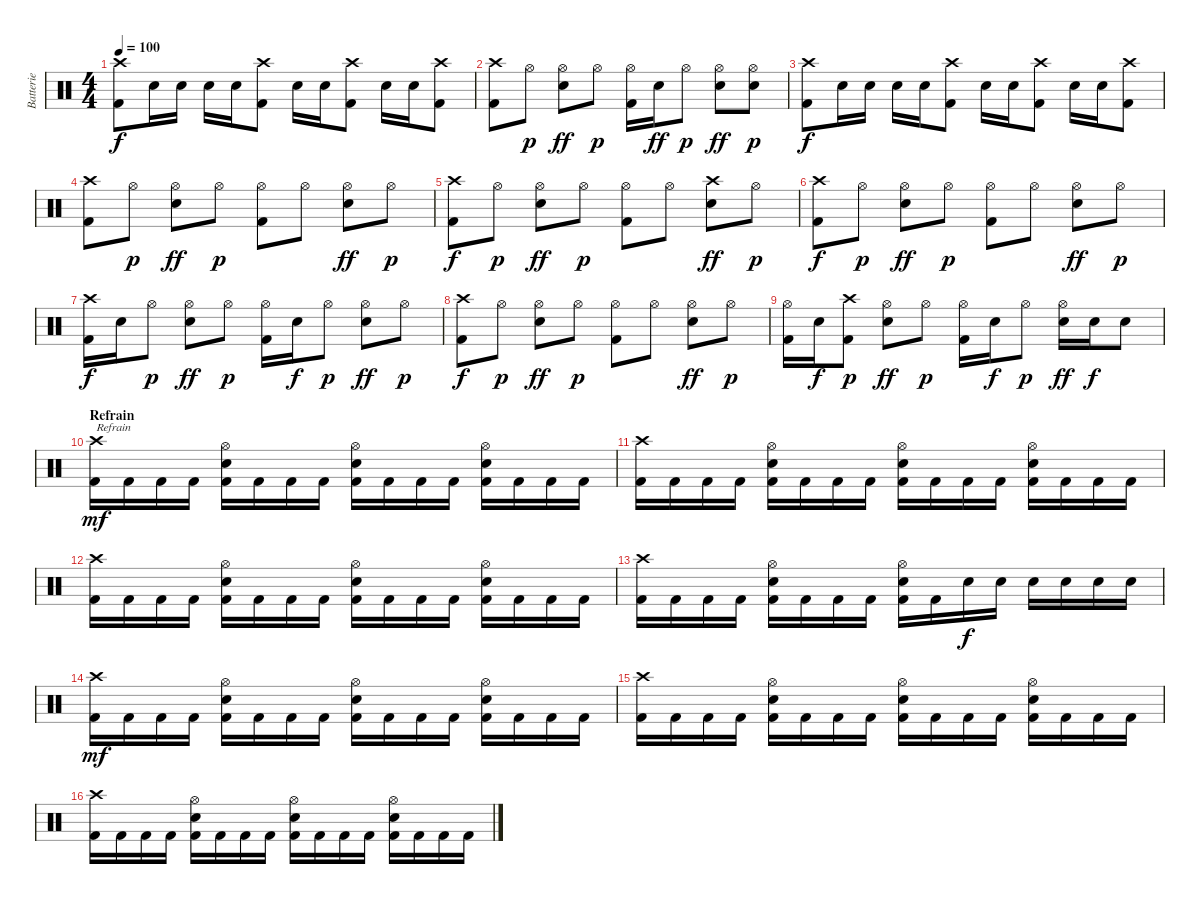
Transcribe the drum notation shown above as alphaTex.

\track ("Batterie" "Batterie") {instrument percussion}
\staff {score}
\articulation defaults
\ts (4 4)
\tempo 100
\clef neutral
\ks c
("Crash high (hit)" "Kick (hit) 2").8{dy f} "Electric Snare (hit)".16 "Electric Snare (hit)".16 "Electric Snare (hit)".16 "Electric Snare (hit)".16 ("Crash high (hit)" "Kick (hit) 2").8 "Electric Snare (hit)".16 "Electric Snare (hit)".16 ("Crash high (hit)" "Kick (hit) 2").8 "Electric Snare (hit)".16 "Electric Snare (hit)".16 ("Crash high (hit)" "Kick (hit) 2").8 |
("Crash high (hit)" "Kick (hit) 2").8 "Hi-Hat (open)".8{dy p} ("Hi-Hat (open)" "Electric Snare (hit)").8{dy ff} "Hi-Hat (open)".8{dy p} ("Hi-Hat (open)" "Kick (hit) 2").16 "Electric Snare (hit)".16{dy ff} "Hi-Hat (open)".8{dy p} ("Hi-Hat (open)" "Electric Snare (hit)").8{dy ff} ("Hi-Hat (open)" "Electric Snare (hit)").8{dy p} |
("Crash high (hit)" "Kick (hit) 2").8{dy f} "Electric Snare (hit)".16 "Electric Snare (hit)".16 "Electric Snare (hit)".16 "Electric Snare (hit)".16 ("Crash high (hit)" "Kick (hit) 2").8 "Electric Snare (hit)".16 "Electric Snare (hit)".16 ("Crash high (hit)" "Kick (hit) 2").8 "Electric Snare (hit)".16 "Electric Snare (hit)".16 ("Crash high (hit)" "Kick (hit) 2").8 |
("Crash high (hit)" "Kick (hit) 2").8 "Hi-Hat (open)".8{dy p} ("Hi-Hat (open)" "Electric Snare (hit)").8{dy ff} "Hi-Hat (open)".8{dy p} ("Hi-Hat (open)" "Kick (hit) 2").8 "Hi-Hat (open)".8 ("Hi-Hat (open)" "Electric Snare (hit)").8{dy ff} "Hi-Hat (open)".8{dy p} |
("Crash high (hit)" "Kick (hit) 2").8{dy f} "Hi-Hat (open)".8{dy p} ("Hi-Hat (open)" "Electric Snare (hit)").8{dy ff} "Hi-Hat (open)".8{dy p} ("Hi-Hat (open)" "Kick (hit) 2").8 "Hi-Hat (open)".8 ("Crash high (hit)" "Electric Snare (hit)").8{dy ff} "Hi-Hat (open)".8{dy p} |
("Crash high (hit)" "Kick (hit) 2").8{dy f} "Hi-Hat (open)".8{dy p} ("Hi-Hat (open)" "Electric Snare (hit)").8{dy ff} "Hi-Hat (open)".8{dy p} ("Hi-Hat (open)" "Kick (hit) 2").8 "Hi-Hat (open)".8 ("Hi-Hat (open)" "Electric Snare (hit)").8{dy ff} "Hi-Hat (open)".8{dy p} |
("Crash high (hit)" "Kick (hit) 2").16{dy f} "Electric Snare (hit)".16 "Hi-Hat (open)".8{dy p} ("Hi-Hat (open)" "Electric Snare (hit)").8{dy ff} "Hi-Hat (open)".8{dy p} ("Hi-Hat (open)" "Kick (hit) 2").16 "Electric Snare (hit)".16{dy f} "Hi-Hat (open)".8{dy p} ("Hi-Hat (open)" "Electric Snare (hit)").8{dy ff} "Hi-Hat (open)".8{dy p} |
("Crash high (hit)" "Kick (hit) 2").8{dy f} "Hi-Hat (open)".8{dy p} ("Hi-Hat (open)" "Electric Snare (hit)").8{dy ff} "Hi-Hat (open)".8{dy p} ("Hi-Hat (open)" "Kick (hit) 2").8 "Hi-Hat (open)".8 ("Hi-Hat (open)" "Electric Snare (hit)").8{dy ff} "Hi-Hat (open)".8{dy p} |
("Hi-Hat (open)" "Kick (hit) 2").16 "Electric Snare (hit)".16{dy f} ("Crash high (hit)" "Kick (hit) 2").8{dy p} ("Hi-Hat (open)" "Electric Snare (hit)").8{dy ff} "Hi-Hat (open)".8{dy p} ("Hi-Hat (open)" "Kick (hit) 2").16 "Electric Snare (hit)".16{dy f} "Hi-Hat (open)".8{dy p} ("Hi-Hat (open)" "Electric Snare (hit)").16{dy ff} "Electric Snare (hit)".16{dy f} "Electric Snare (hit)".8 |
\section ("" "Refrain")
("Crash high (hit)" "Kick (hit) 2").16{txt "Refrain" dy mf} "Kick (hit) 2".16 "Kick (hit) 2".16 "Kick (hit) 2".16 ("Hi-Hat (open)" "Electric Snare (hit)" "Kick (hit) 2").16 "Kick (hit) 2".16 "Kick (hit) 2".16 "Kick (hit) 2".16 ("Hi-Hat (open)" "Electric Snare (hit)" "Kick (hit) 2").16 "Kick (hit) 2".16 "Kick (hit) 2".16 "Kick (hit) 2".16 ("Hi-Hat (open)" "Electric Snare (hit)" "Kick (hit) 2").16 "Kick (hit) 2".16 "Kick (hit) 2".16 "Kick (hit) 2".16 |
("Crash high (hit)" "Kick (hit) 2").16 "Kick (hit) 2".16 "Kick (hit) 2".16 "Kick (hit) 2".16 ("Hi-Hat (open)" "Electric Snare (hit)" "Kick (hit) 2").16 "Kick (hit) 2".16 "Kick (hit) 2".16 "Kick (hit) 2".16 ("Hi-Hat (open)" "Electric Snare (hit)" "Kick (hit) 2").16 "Kick (hit) 2".16 "Kick (hit) 2".16 "Kick (hit) 2".16 ("Hi-Hat (open)" "Electric Snare (hit)" "Kick (hit) 2").16 "Kick (hit) 2".16 "Kick (hit) 2".16 "Kick (hit) 2".16 |
("Crash high (hit)" "Kick (hit) 2").16 "Kick (hit) 2".16 "Kick (hit) 2".16 "Kick (hit) 2".16 ("Hi-Hat (open)" "Electric Snare (hit)" "Kick (hit) 2").16 "Kick (hit) 2".16 "Kick (hit) 2".16 "Kick (hit) 2".16 ("Hi-Hat (open)" "Electric Snare (hit)" "Kick (hit) 2").16 "Kick (hit) 2".16 "Kick (hit) 2".16 "Kick (hit) 2".16 ("Hi-Hat (open)" "Electric Snare (hit)" "Kick (hit) 2").16 "Kick (hit) 2".16 "Kick (hit) 2".16 "Kick (hit) 2".16 |
("Crash high (hit)" "Kick (hit) 2").16 "Kick (hit) 2".16 "Kick (hit) 2".16 "Kick (hit) 2".16 ("Hi-Hat (open)" "Electric Snare (hit)" "Kick (hit) 2").16 "Kick (hit) 2".16 "Kick (hit) 2".16 "Kick (hit) 2".16 ("Hi-Hat (open)" "Electric Snare (hit)" "Kick (hit) 2").16 "Kick (hit) 2".16 "Electric Snare (hit)".16{dy f} "Electric Snare (hit)".16 "Electric Snare (hit)".16 "Electric Snare (hit)".16 "Electric Snare (hit)".16 "Electric Snare (hit)".16 |
("Crash high (hit)" "Kick (hit) 2").16{dy mf} "Kick (hit) 2".16 "Kick (hit) 2".16 "Kick (hit) 2".16 ("Hi-Hat (open)" "Electric Snare (hit)" "Kick (hit) 2").16 "Kick (hit) 2".16 "Kick (hit) 2".16 "Kick (hit) 2".16 ("Hi-Hat (open)" "Electric Snare (hit)" "Kick (hit) 2").16 "Kick (hit) 2".16 "Kick (hit) 2".16 "Kick (hit) 2".16 ("Hi-Hat (open)" "Electric Snare (hit)" "Kick (hit) 2").16 "Kick (hit) 2".16 "Kick (hit) 2".16 "Kick (hit) 2".16 |
("Crash high (hit)" "Kick (hit) 2").16 "Kick (hit) 2".16 "Kick (hit) 2".16 "Kick (hit) 2".16 ("Hi-Hat (open)" "Electric Snare (hit)" "Kick (hit) 2").16 "Kick (hit) 2".16 "Kick (hit) 2".16 "Kick (hit) 2".16 ("Hi-Hat (open)" "Electric Snare (hit)" "Kick (hit) 2").16 "Kick (hit) 2".16 "Kick (hit) 2".16 "Kick (hit) 2".16 ("Hi-Hat (open)" "Electric Snare (hit)" "Kick (hit) 2").16 "Kick (hit) 2".16 "Kick (hit) 2".16 "Kick (hit) 2".16 |
("Crash high (hit)" "Kick (hit) 2").16 "Kick (hit) 2".16 "Kick (hit) 2".16 "Kick (hit) 2".16 ("Hi-Hat (open)" "Electric Snare (hit)" "Kick (hit) 2").16 "Kick (hit) 2".16 "Kick (hit) 2".16 "Kick (hit) 2".16 ("Hi-Hat (open)" "Electric Snare (hit)" "Kick (hit) 2").16 "Kick (hit) 2".16 "Kick (hit) 2".16 "Kick (hit) 2".16 ("Hi-Hat (open)" "Electric Snare (hit)" "Kick (hit) 2").16 "Kick (hit) 2".16 "Kick (hit) 2".16 "Kick (hit) 2".16
